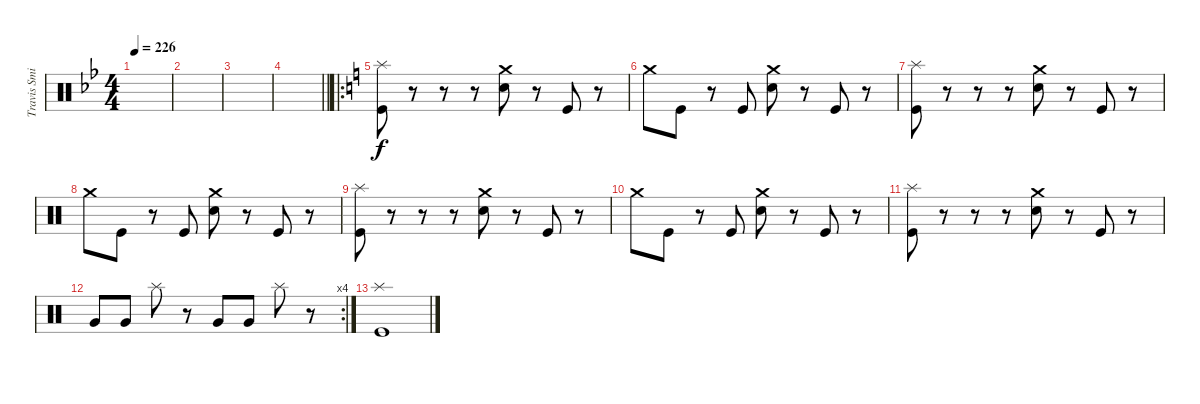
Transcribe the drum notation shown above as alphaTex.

\track ("Travis Smith" "Travis Smi") {instrument percussion}
\staff {score}
\articulation defaults
\ts (4 4)
\tempo 226
\clef neutral
\ks bb
|
|
|
\barLineRight lightlight
|
\ro
\ks c
("Splash (hit)" "Kick (hit)").8 r.8 r.8 r.8 ("Crash medium (hit)" "Electric Snare (hit)").8 r.8 "Kick (hit)".8 r.8 |
"Crash medium (hit)".8 "Kick (hit)".8 r.8 "Kick (hit)".8 ("Crash medium (hit)" "Electric Snare (hit)").8 r.8 "Kick (hit)".8 r.8 |
("Splash (hit)" "Kick (hit)").8 r.8 r.8 r.8 ("Crash medium (hit)" "Electric Snare (hit)").8 r.8 "Kick (hit)".8 r.8 |
"Crash medium (hit)".8 "Kick (hit)".8 r.8 "Kick (hit)".8 ("Crash medium (hit)" "Electric Snare (hit)").8 r.8 "Kick (hit)".8 r.8 |
("Splash (hit)" "Kick (hit)").8 r.8 r.8 r.8 ("Crash medium (hit)" "Electric Snare (hit)").8 r.8 "Kick (hit)".8 r.8 |
"Crash medium (hit)".8 "Kick (hit)".8 r.8 "Kick (hit)".8 ("Crash medium (hit)" "Electric Snare (hit)").8 r.8 "Kick (hit)".8 r.8 |
("Splash (hit)" "Kick (hit)").8 r.8 r.8 r.8 ("Crash medium (hit)" "Electric Snare (hit)").8 r.8 "Kick (hit)".8 r.8 |
\rc 4 "Very Low Tom (hit)".8 "Very Low Tom (hit)".8 "Splash (hit)".8
r.8 "Very Low Tom (hit)".8 "Very Low Tom (hit)".8 "Splash (hit)".8 r.8 |
("Splash (hit)" "Kick (hit)").1
